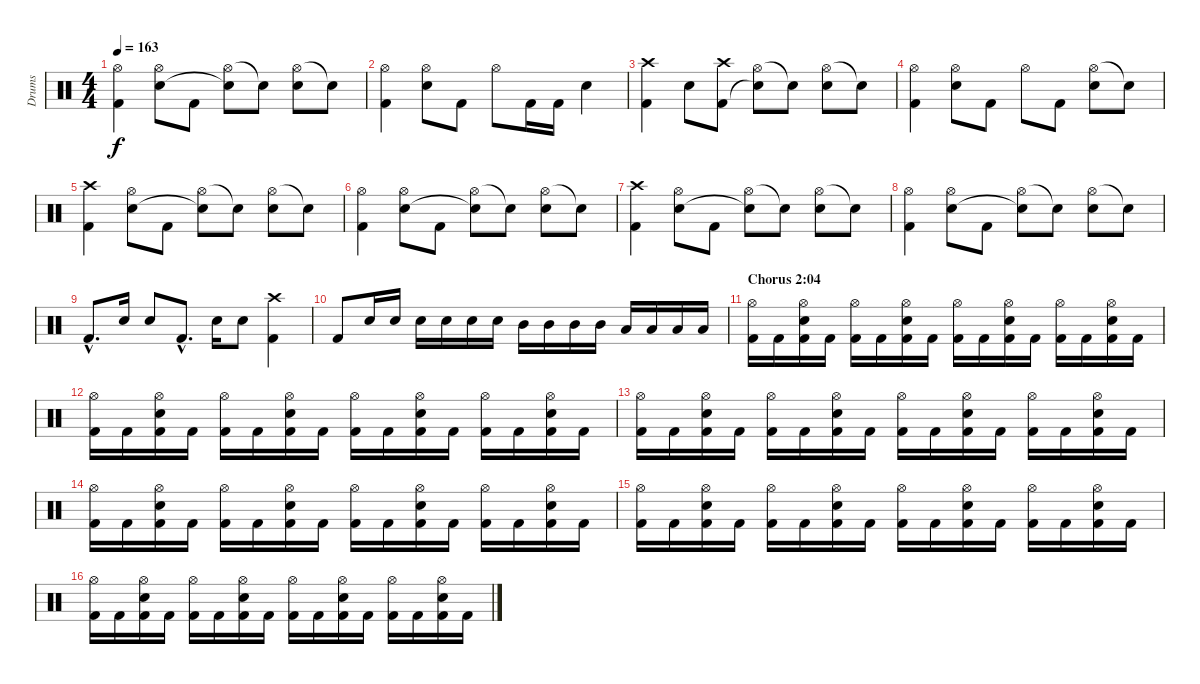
\track ("Drums" "Drums") {instrument percussion}
\staff {score}
\articulation defaults
\ts (4 4)
\tempo 163
\clef neutral
\ks c
("Hi-Hat (open)" "Kick (hit) 2").4{dy f} ("Hi-Hat (open)" "Snare (hit) 2").8 "Kick (hit) 2".8 ("Hi-Hat (open)" "Snare (hit)"{t}).8 "Snare (hit)"{t}.8 ("Hi-Hat (open)" "Snare (hit) 2").8 "Snare (hit)"{t}.8 |
("Hi-Hat (open)" "Kick (hit) 2").4 ("Hi-Hat (open)" "Snare (hit) 2").8 "Kick (hit) 2".8 "Hi-Hat (open)".8 "Kick (hit) 2".16 "Kick (hit) 2".16 "Snare (hit) 2".4 |
("Crash high (hit)" "Kick (hit) 2").4 "Snare (hit) 2".8 ("Crash high (hit)" "Kick (hit) 2").8 ("Hi-Hat (open)" "Snare (hit)"{t}).8 "Snare (hit)"{t}.8 ("Hi-Hat (open)" "Snare (hit) 2").8 "Snare (hit)"{t}.8 |
("Hi-Hat (open)" "Kick (hit) 2").4 ("Hi-Hat (open)" "Snare (hit) 2").8 "Kick (hit) 2".8 "Hi-Hat (open)".8 "Kick (hit) 2".8 ("Hi-Hat (open)" "Snare (hit) 2").8 "Snare (hit)"{t}.8 |
("Crash high (hit)" "Kick (hit) 2").4 ("Hi-Hat (open)" "Snare (hit) 2").8 "Kick (hit) 2".8 ("Hi-Hat (open)" "Snare (hit)"{t}).8 "Snare (hit)"{t}.8 ("Hi-Hat (open)" "Snare (hit) 2").8 "Snare (hit)"{t}.8 |
("Hi-Hat (open)" "Kick (hit) 2").4 ("Hi-Hat (open)" "Snare (hit) 2").8 "Kick (hit) 2".8 ("Hi-Hat (open)" "Snare (hit)"{t}).8 "Snare (hit)"{t}.8 ("Hi-Hat (open)" "Snare (hit) 2").8 "Snare (hit)"{t}.8 |
("Crash high (hit)" "Kick (hit) 2").4 ("Hi-Hat (open)" "Snare (hit) 2").8 "Kick (hit) 2".8 ("Hi-Hat (open)" "Snare (hit)"{t}).8 "Snare (hit)"{t}.8 ("Hi-Hat (open)" "Snare (hit) 2").8 "Snare (hit)"{t}.8 |
("Hi-Hat (open)" "Kick (hit) 2").4 ("Hi-Hat (open)" "Snare (hit) 2").8 "Kick (hit) 2".8 ("Hi-Hat (open)" "Snare (hit)"{t}).8 "Snare (hit)"{t}.8 ("Hi-Hat (open)" "Snare (hit) 2").8 "Snare (hit)"{t}.8 |
"Kick (hit) 2"{hac}.8{d} "Snare (hit) 2".16 "Snare (hit) 2".8 "Kick (hit) 2"{hac}.8{d} "Snare (hit) 2".16 "Snare (hit) 2".8 ("Kick (hit) 2" "Crash high (hit)").4 |
"Kick (hit) 2".8 "Snare (hit) 2".16 "Snare (hit) 2".16 "Snare (hit) 2".16 "Snare (hit) 2".16 "Snare (hit) 2".16 "Snare (hit) 2".16 "Mid Tom (hit)".16 "Mid Tom (hit)".16 "Mid Tom (hit)".16 "Mid Tom (hit)".16 "Low Tom (hit)".16 "Low Tom (hit)".16 "Low Tom (hit)".16 "Low Tom (hit)".16 |
\section ("" "Chorus 2:04")
("Hi-Hat (open)" "Kick (hit) 2").16 "Kick (hit) 2".16 ("Hi-Hat (open)" "Kick (hit) 2" "Snare (hit) 2").16 "Kick (hit) 2".16 ("Hi-Hat (open)" "Kick (hit) 2").16 "Kick (hit) 2".16 ("Hi-Hat (open)" "Kick (hit) 2" "Snare (hit) 2").16 "Kick (hit) 2".16 ("Hi-Hat (open)" "Kick (hit) 2").16 "Kick (hit) 2".16 ("Hi-Hat (open)" "Kick (hit) 2" "Snare (hit) 2").16 "Kick (hit) 2".16 ("Hi-Hat (open)" "Kick (hit) 2").16 "Kick (hit) 2".16 ("Hi-Hat (open)" "Kick (hit) 2" "Snare (hit) 2").16 "Kick (hit) 2".16 |
("Hi-Hat (open)" "Kick (hit) 2").16 "Kick (hit) 2".16 ("Hi-Hat (open)" "Kick (hit) 2" "Snare (hit) 2").16 "Kick (hit) 2".16 ("Hi-Hat (open)" "Kick (hit) 2").16 "Kick (hit) 2".16 ("Hi-Hat (open)" "Kick (hit) 2" "Snare (hit) 2").16 "Kick (hit) 2".16 ("Hi-Hat (open)" "Kick (hit) 2").16 "Kick (hit) 2".16 ("Hi-Hat (open)" "Kick (hit) 2" "Snare (hit) 2").16 "Kick (hit) 2".16 ("Hi-Hat (open)" "Kick (hit) 2").16 "Kick (hit) 2".16 ("Hi-Hat (open)" "Kick (hit) 2" "Snare (hit) 2").16 "Kick (hit) 2".16 |
("Hi-Hat (open)" "Kick (hit) 2").16 "Kick (hit) 2".16 ("Hi-Hat (open)" "Kick (hit) 2" "Snare (hit) 2").16 "Kick (hit) 2".16 ("Hi-Hat (open)" "Kick (hit) 2").16 "Kick (hit) 2".16 ("Hi-Hat (open)" "Kick (hit) 2" "Snare (hit) 2").16 "Kick (hit) 2".16 ("Hi-Hat (open)" "Kick (hit) 2").16 "Kick (hit) 2".16 ("Hi-Hat (open)" "Kick (hit) 2" "Snare (hit) 2").16 "Kick (hit) 2".16 ("Hi-Hat (open)" "Kick (hit) 2").16 "Kick (hit) 2".16 ("Hi-Hat (open)" "Kick (hit) 2" "Snare (hit) 2").16 "Kick (hit) 2".16 |
("Hi-Hat (open)" "Kick (hit) 2").16 "Kick (hit) 2".16 ("Hi-Hat (open)" "Kick (hit) 2" "Snare (hit) 2").16 "Kick (hit) 2".16 ("Hi-Hat (open)" "Kick (hit) 2").16 "Kick (hit) 2".16 ("Hi-Hat (open)" "Kick (hit) 2" "Snare (hit) 2").16 "Kick (hit) 2".16 ("Hi-Hat (open)" "Kick (hit) 2").16 "Kick (hit) 2".16 ("Hi-Hat (open)" "Kick (hit) 2" "Snare (hit) 2").16 "Kick (hit) 2".16 ("Hi-Hat (open)" "Kick (hit) 2").16 "Kick (hit) 2".16 ("Hi-Hat (open)" "Kick (hit) 2" "Snare (hit) 2").16 "Kick (hit) 2".16 |
("Hi-Hat (open)" "Kick (hit) 2").16 "Kick (hit) 2".16 ("Hi-Hat (open)" "Kick (hit) 2" "Snare (hit) 2").16 "Kick (hit) 2".16 ("Hi-Hat (open)" "Kick (hit) 2").16 "Kick (hit) 2".16 ("Hi-Hat (open)" "Kick (hit) 2" "Snare (hit) 2").16 "Kick (hit) 2".16 ("Hi-Hat (open)" "Kick (hit) 2").16 "Kick (hit) 2".16 ("Hi-Hat (open)" "Kick (hit) 2" "Snare (hit) 2").16 "Kick (hit) 2".16 ("Hi-Hat (open)" "Kick (hit) 2").16 "Kick (hit) 2".16 ("Hi-Hat (open)" "Kick (hit) 2" "Snare (hit) 2").16 "Kick (hit) 2".16 |
("Hi-Hat (open)" "Kick (hit) 2").16 "Kick (hit) 2".16 ("Hi-Hat (open)" "Kick (hit) 2" "Snare (hit) 2").16 "Kick (hit) 2".16 ("Hi-Hat (open)" "Kick (hit) 2").16 "Kick (hit) 2".16 ("Hi-Hat (open)" "Kick (hit) 2" "Snare (hit) 2").16 "Kick (hit) 2".16 ("Hi-Hat (open)" "Kick (hit) 2").16 "Kick (hit) 2".16 ("Hi-Hat (open)" "Kick (hit) 2" "Snare (hit) 2").16 "Kick (hit) 2".16 ("Hi-Hat (open)" "Kick (hit) 2").16 "Kick (hit) 2".16 ("Hi-Hat (open)" "Kick (hit) 2" "Snare (hit) 2").16 "Kick (hit) 2".16
